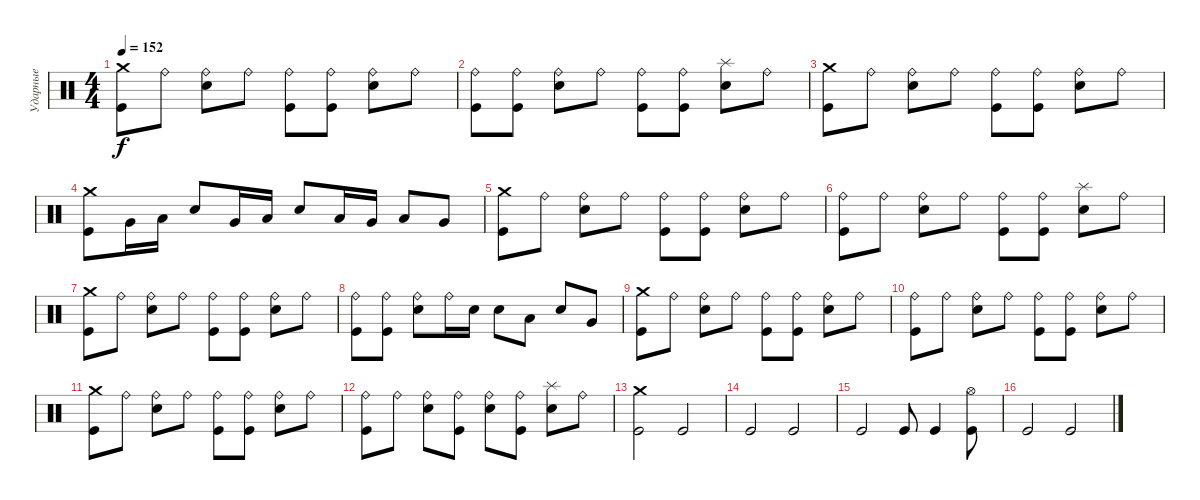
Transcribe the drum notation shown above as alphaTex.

\track ("Ударные" "Ударные") {instrument percussion}
\staff {score}
\articulation defaults
\ts (4 4)
\tempo 152
\clef neutral
\ks c
("Crash medium (hit)" "Kick (hit)").8{dy f} "Ride (bell)".8 ("Ride (bell)" "Electric Snare (hit)").8 "Ride (bell)".8 ("Ride (bell)" "Kick (hit)").8 ("Ride (bell)" "Kick (hit)").8 ("Ride (bell)" "Electric Snare (hit)").8 "Ride (bell)".8 |
("Ride (bell)" "Kick (hit)").8 ("Ride (bell)" "Kick (hit)").8 ("Ride (bell)" "Electric Snare (hit)").8 "Ride (bell)".8 ("Ride (bell)" "Kick (hit)").8 ("Ride (bell)" "Kick (hit)").8 ("Splash (hit)" "Electric Snare (hit)").8 "Ride (bell)".8 |
("Crash medium (hit)" "Kick (hit)").8 "Ride (bell)".8 ("Ride (bell)" "Electric Snare (hit)").8 "Ride (bell)".8 ("Ride (bell)" "Kick (hit)").8 ("Ride (bell)" "Kick (hit)").8 ("Ride (bell)" "Electric Snare (hit)").8 "Ride (bell)".8 |
("Crash medium (hit)" "Kick (hit)").8 "Very Low Tom (hit)".16 "Low Tom (hit)".16 "Electric Snare (hit)".8 "Very Low Tom (hit)".16 "Low Tom (hit)".16 "Electric Snare (hit)".8 "Low Tom (hit)".16 "Very Low Tom (hit)".16 "Low Tom (hit)".8 "Very Low Tom (hit)".8 |
("Crash medium (hit)" "Kick (hit)").8 "Ride (bell)".8 ("Ride (bell)" "Electric Snare (hit)").8 "Ride (bell)".8 ("Ride (bell)" "Kick (hit)").8 ("Ride (bell)" "Kick (hit)").8 ("Ride (bell)" "Electric Snare (hit)").8 "Ride (bell)".8 |
("Ride (bell)" "Kick (hit)").8 "Ride (bell)".8 ("Ride (bell)" "Electric Snare (hit)").8 "Ride (bell)".8 ("Ride (bell)" "Kick (hit)").8 ("Ride (bell)" "Kick (hit)").8 ("Splash (hit)" "Electric Snare (hit)").8 "Ride (bell)".8 |
("Crash medium (hit)" "Kick (hit)").8 "Ride (bell)".8 ("Ride (bell)" "Electric Snare (hit)").8 "Ride (bell)".8 ("Ride (bell)" "Kick (hit)").8 ("Ride (bell)" "Kick (hit)").8 ("Ride (bell)" "Electric Snare (hit)").8 "Ride (bell)".8 |
("Ride (bell)" "Kick (hit)").8 ("Ride (bell)" "Kick (hit)").8 ("Ride (bell)" "Electric Snare (hit)").8 "Ride (bell)".16 "Electric Snare (hit)".16 "Electric Snare (hit)".8 "Low Tom (hit)".8 "Electric Snare (hit)".8 "Very Low Tom (hit)".8 |
("Crash medium (hit)" "Kick (hit)").8 "Ride (bell)".8 ("Ride (bell)" "Electric Snare (hit)").8 "Ride (bell)".8 ("Ride (bell)" "Kick (hit)").8 ("Ride (bell)" "Kick (hit)").8 ("Ride (bell)" "Electric Snare (hit)").8 "Ride (bell)".8 |
("Ride (bell)" "Kick (hit)").8 "Ride (bell)".8 ("Ride (bell)" "Electric Snare (hit)").8 "Ride (bell)".8 ("Ride (bell)" "Kick (hit)").8 ("Ride (bell)" "Kick (hit)").8 ("Ride (bell)" "Electric Snare (hit)").8 "Ride (bell)".8 |
("Crash medium (hit)" "Kick (hit)").8 "Ride (bell)".8 ("Ride (bell)" "Electric Snare (hit)").8 "Ride (bell)".8 ("Ride (bell)" "Kick (hit)").8 ("Ride (bell)" "Kick (hit)").8 ("Ride (bell)" "Electric Snare (hit)").8 "Ride (bell)".8 |
("Ride (bell)" "Kick (hit)").8 "Ride (bell)".8 ("Ride (bell)" "Electric Snare (hit)").8 ("Ride (bell)" "Kick (hit)").8 ("Ride (bell)" "Electric Snare (hit)").8 ("Ride (bell)" "Kick (hit)").8 ("Splash (hit)" "Electric Snare (hit)").8 "Ride (bell)".8 |
("Crash medium (hit)" "Kick (hit)").2 "Kick (hit)".2 |
"Kick (hit)".2 "Kick (hit)".2 |
"Kick (hit)".2 "Kick (hit)".8 "Kick (hit)".4 ("Hi-Hat (open)" "Kick (hit)").8 |
"Kick (hit)".2 "Kick (hit)".2
